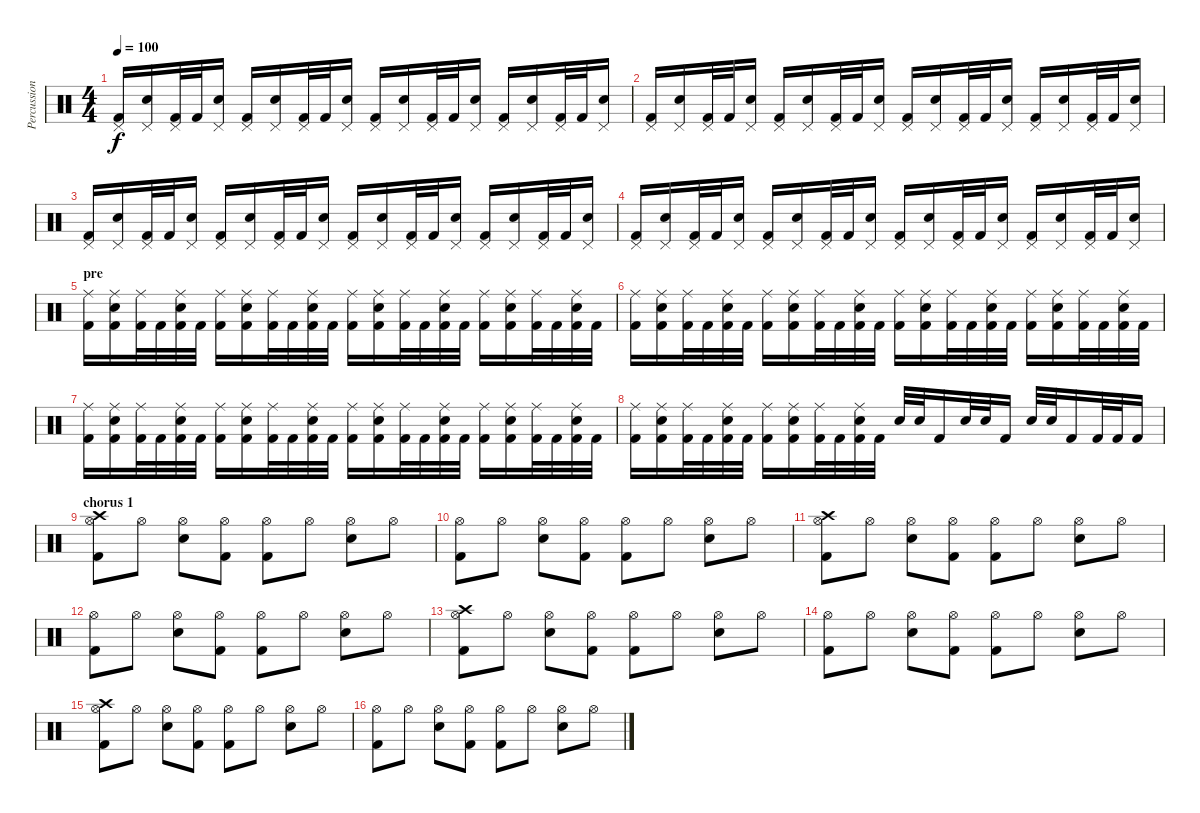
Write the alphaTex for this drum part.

\track ("Percussion" "Percussion") {instrument percussion}
\staff {score}
\articulation defaults
\ts (4 4)
\tempo 100
\clef neutral
\ks c
("Pedal Hi-Hat (hit)" "Kick (hit) 2").16{dy f} ("Pedal Hi-Hat (hit)" "Electric Snare (hit)").16 ("Pedal Hi-Hat (hit)" "Kick (hit) 2").32 "Kick (hit) 2".32 ("Pedal Hi-Hat (hit)" "Electric Snare (hit)").16 ("Pedal Hi-Hat (hit)" "Kick (hit) 2").16 ("Pedal Hi-Hat (hit)" "Electric Snare (hit)").16 ("Pedal Hi-Hat (hit)" "Kick (hit) 2").32 "Kick (hit) 2".32 ("Pedal Hi-Hat (hit)" "Electric Snare (hit)").16 ("Pedal Hi-Hat (hit)" "Kick (hit) 2").16 ("Pedal Hi-Hat (hit)" "Electric Snare (hit)").16 ("Pedal Hi-Hat (hit)" "Kick (hit) 2").32 "Kick (hit) 2".32 ("Pedal Hi-Hat (hit)" "Electric Snare (hit)").16 ("Pedal Hi-Hat (hit)" "Kick (hit) 2").16 ("Pedal Hi-Hat (hit)" "Electric Snare (hit)").16 ("Pedal Hi-Hat (hit)" "Kick (hit) 2").32 "Kick (hit) 2".32 ("Pedal Hi-Hat (hit)" "Electric Snare (hit)").16 |
("Pedal Hi-Hat (hit)" "Kick (hit) 2").16 ("Pedal Hi-Hat (hit)" "Electric Snare (hit)").16 ("Pedal Hi-Hat (hit)" "Kick (hit) 2").32 "Kick (hit) 2".32 ("Pedal Hi-Hat (hit)" "Electric Snare (hit)").16 ("Pedal Hi-Hat (hit)" "Kick (hit) 2").16 ("Pedal Hi-Hat (hit)" "Electric Snare (hit)").16 ("Pedal Hi-Hat (hit)" "Kick (hit) 2").32 "Kick (hit) 2".32 ("Pedal Hi-Hat (hit)" "Electric Snare (hit)").16 ("Pedal Hi-Hat (hit)" "Kick (hit) 2").16 ("Pedal Hi-Hat (hit)" "Electric Snare (hit)").16 ("Pedal Hi-Hat (hit)" "Kick (hit) 2").32 "Kick (hit) 2".32 ("Pedal Hi-Hat (hit)" "Electric Snare (hit)").16 ("Pedal Hi-Hat (hit)" "Kick (hit) 2").16 ("Pedal Hi-Hat (hit)" "Electric Snare (hit)").16 ("Pedal Hi-Hat (hit)" "Kick (hit) 2").32 "Kick (hit) 2".32 ("Pedal Hi-Hat (hit)" "Electric Snare (hit)").16 |
("Pedal Hi-Hat (hit)" "Kick (hit) 2").16 ("Pedal Hi-Hat (hit)" "Electric Snare (hit)").16 ("Pedal Hi-Hat (hit)" "Kick (hit) 2").32 "Kick (hit) 2".32 ("Pedal Hi-Hat (hit)" "Electric Snare (hit)").16 ("Pedal Hi-Hat (hit)" "Kick (hit) 2").16 ("Pedal Hi-Hat (hit)" "Electric Snare (hit)").16 ("Pedal Hi-Hat (hit)" "Kick (hit) 2").32 "Kick (hit) 2".32 ("Pedal Hi-Hat (hit)" "Electric Snare (hit)").16 ("Pedal Hi-Hat (hit)" "Kick (hit) 2").16 ("Pedal Hi-Hat (hit)" "Electric Snare (hit)").16 ("Pedal Hi-Hat (hit)" "Kick (hit) 2").32 "Kick (hit) 2".32 ("Pedal Hi-Hat (hit)" "Electric Snare (hit)").16 ("Pedal Hi-Hat (hit)" "Kick (hit) 2").16 ("Pedal Hi-Hat (hit)" "Electric Snare (hit)").16 ("Pedal Hi-Hat (hit)" "Kick (hit) 2").32 "Kick (hit) 2".32 ("Pedal Hi-Hat (hit)" "Electric Snare (hit)").16 |
("Pedal Hi-Hat (hit)" "Kick (hit) 2").16 ("Pedal Hi-Hat (hit)" "Electric Snare (hit)").16 ("Pedal Hi-Hat (hit)" "Kick (hit) 2").32 "Kick (hit) 2".32 ("Pedal Hi-Hat (hit)" "Electric Snare (hit)").16 ("Pedal Hi-Hat (hit)" "Kick (hit) 2").16 ("Pedal Hi-Hat (hit)" "Electric Snare (hit)").16 ("Pedal Hi-Hat (hit)" "Kick (hit) 2").32 "Kick (hit) 2".32 ("Pedal Hi-Hat (hit)" "Electric Snare (hit)").16 ("Pedal Hi-Hat (hit)" "Kick (hit) 2").16 ("Pedal Hi-Hat (hit)" "Electric Snare (hit)").16 ("Pedal Hi-Hat (hit)" "Kick (hit) 2").32 "Kick (hit) 2".32 ("Pedal Hi-Hat (hit)" "Electric Snare (hit)").16 ("Pedal Hi-Hat (hit)" "Kick (hit) 2").16 ("Pedal Hi-Hat (hit)" "Electric Snare (hit)").16 ("Pedal Hi-Hat (hit)" "Kick (hit) 2").32 "Kick (hit) 2".32 ("Pedal Hi-Hat (hit)" "Electric Snare (hit)").16 |
\section ("" "pre")
("Ride (middle)" "Kick (hit) 2").16 ("Ride (middle)" "Electric Snare (hit)" "Kick (hit) 2").16 ("Ride (middle)" "Kick (hit) 2").32 "Kick (hit) 2".32 ("Ride (middle)" "Electric Snare (hit)" "Kick (hit) 2").32 "Kick (hit) 2".32 ("Ride (middle)" "Kick (hit) 2").16 ("Ride (middle)" "Electric Snare (hit)" "Kick (hit) 2").16 ("Ride (middle)" "Kick (hit) 2").32 "Kick (hit) 2".32 ("Ride (middle)" "Electric Snare (hit)" "Kick (hit) 2").32 "Kick (hit) 2".32 ("Ride (middle)" "Kick (hit) 2").16 ("Ride (middle)" "Electric Snare (hit)" "Kick (hit) 2").16 ("Ride (middle)" "Kick (hit) 2").32 "Kick (hit) 2".32 ("Ride (middle)" "Electric Snare (hit)" "Kick (hit) 2").32 "Kick (hit) 2".32 ("Ride (middle)" "Kick (hit) 2").16 ("Ride (middle)" "Electric Snare (hit)" "Kick (hit) 2").16 ("Ride (middle)" "Kick (hit) 2").32 "Kick (hit) 2".32 ("Ride (middle)" "Electric Snare (hit)" "Kick (hit) 2").32 "Kick (hit) 2".32 |
("Ride (middle)" "Kick (hit) 2").16 ("Ride (middle)" "Electric Snare (hit)" "Kick (hit) 2").16 ("Ride (middle)" "Kick (hit) 2").32 "Kick (hit) 2".32 ("Ride (middle)" "Electric Snare (hit)" "Kick (hit) 2").32 "Kick (hit) 2".32 ("Ride (middle)" "Kick (hit) 2").16 ("Ride (middle)" "Electric Snare (hit)" "Kick (hit) 2").16 ("Ride (middle)" "Kick (hit) 2").32 "Kick (hit) 2".32 ("Ride (middle)" "Electric Snare (hit)" "Kick (hit) 2").32 "Kick (hit) 2".32 ("Ride (middle)" "Kick (hit) 2").16 ("Ride (middle)" "Electric Snare (hit)" "Kick (hit) 2").16 ("Ride (middle)" "Kick (hit) 2").32 "Kick (hit) 2".32 ("Ride (middle)" "Electric Snare (hit)" "Kick (hit) 2").32 "Kick (hit) 2".32 ("Ride (middle)" "Kick (hit) 2").16 ("Ride (middle)" "Electric Snare (hit)" "Kick (hit) 2").16 ("Ride (middle)" "Kick (hit) 2").32 "Kick (hit) 2".32 ("Ride (middle)" "Electric Snare (hit)" "Kick (hit) 2").32 "Kick (hit) 2".32 |
("Ride (middle)" "Kick (hit) 2").16 ("Ride (middle)" "Electric Snare (hit)" "Kick (hit) 2").16 ("Ride (middle)" "Kick (hit) 2").32 "Kick (hit) 2".32 ("Ride (middle)" "Electric Snare (hit)" "Kick (hit) 2").32 "Kick (hit) 2".32 ("Ride (middle)" "Kick (hit) 2").16 ("Ride (middle)" "Electric Snare (hit)" "Kick (hit) 2").16 ("Ride (middle)" "Kick (hit) 2").32 "Kick (hit) 2".32 ("Ride (middle)" "Electric Snare (hit)" "Kick (hit) 2").32 "Kick (hit) 2".32 ("Ride (middle)" "Kick (hit) 2").16 ("Ride (middle)" "Electric Snare (hit)" "Kick (hit) 2").16 ("Ride (middle)" "Kick (hit) 2").32 "Kick (hit) 2".32 ("Ride (middle)" "Electric Snare (hit)" "Kick (hit) 2").32 "Kick (hit) 2".32 ("Ride (middle)" "Kick (hit) 2").16 ("Ride (middle)" "Electric Snare (hit)" "Kick (hit) 2").16 ("Ride (middle)" "Kick (hit) 2").32 "Kick (hit) 2".32 ("Ride (middle)" "Electric Snare (hit)" "Kick (hit) 2").32 "Kick (hit) 2".32 |
("Ride (middle)" "Kick (hit) 2").16 ("Ride (middle)" "Electric Snare (hit)" "Kick (hit) 2").16 ("Ride (middle)" "Kick (hit) 2").32 "Kick (hit) 2".32 ("Ride (middle)" "Electric Snare (hit)" "Kick (hit) 2").32 "Kick (hit) 2".32 ("Ride (middle)" "Kick (hit) 2").16 ("Ride (middle)" "Electric Snare (hit)" "Kick (hit) 2").16 ("Ride (middle)" "Kick (hit) 2").32 "Kick (hit) 2".32 ("Ride (middle)" "Electric Snare (hit)" "Kick (hit) 2").32 "Kick (hit) 2".32 "Electric Snare (hit)".32 "Electric Snare (hit)".32 "Kick (hit) 2".16 "Electric Snare (hit)".32 "Electric Snare (hit)".32 "Kick (hit) 2".16 "Electric Snare (hit)".32 "Electric Snare (hit)".32 "Kick (hit) 2".16 "Kick (hit) 2".32 "Kick (hit) 2".32 "Kick (hit) 2".16 |
\section ("" "chorus 1")
("Crash high (hit)" "Hi-Hat (open)" "Kick (hit) 2").8 "Hi-Hat (open)".8 ("Hi-Hat (open)" "Electric Snare (hit)").8 ("Hi-Hat (open)" "Kick (hit) 2").8 ("Hi-Hat (open)" "Kick (hit) 2").8 "Hi-Hat (open)".8 ("Hi-Hat (open)" "Electric Snare (hit)").8 "Hi-Hat (open)".8 |
("Hi-Hat (open)" "Kick (hit) 2").8 "Hi-Hat (open)".8 ("Hi-Hat (open)" "Electric Snare (hit)").8 ("Hi-Hat (open)" "Kick (hit) 2").8 ("Hi-Hat (open)" "Kick (hit) 2").8 "Hi-Hat (open)".8 ("Hi-Hat (open)" "Electric Snare (hit)").8 "Hi-Hat (open)".8 |
("Crash high (hit)" "Hi-Hat (open)" "Kick (hit) 2").8 "Hi-Hat (open)".8 ("Hi-Hat (open)" "Electric Snare (hit)").8 ("Hi-Hat (open)" "Kick (hit) 2").8 ("Hi-Hat (open)" "Kick (hit) 2").8 "Hi-Hat (open)".8 ("Hi-Hat (open)" "Electric Snare (hit)").8 "Hi-Hat (open)".8 |
("Hi-Hat (open)" "Kick (hit) 2").8 "Hi-Hat (open)".8 ("Hi-Hat (open)" "Electric Snare (hit)").8 ("Hi-Hat (open)" "Kick (hit) 2").8 ("Hi-Hat (open)" "Kick (hit) 2").8 "Hi-Hat (open)".8 ("Hi-Hat (open)" "Electric Snare (hit)").8 "Hi-Hat (open)".8 |
("Crash high (hit)" "Hi-Hat (open)" "Kick (hit) 2").8 "Hi-Hat (open)".8 ("Hi-Hat (open)" "Electric Snare (hit)").8 ("Hi-Hat (open)" "Kick (hit) 2").8 ("Hi-Hat (open)" "Kick (hit) 2").8 "Hi-Hat (open)".8 ("Hi-Hat (open)" "Electric Snare (hit)").8 "Hi-Hat (open)".8 |
("Hi-Hat (open)" "Kick (hit) 2").8 "Hi-Hat (open)".8 ("Hi-Hat (open)" "Electric Snare (hit)").8 ("Hi-Hat (open)" "Kick (hit) 2").8 ("Hi-Hat (open)" "Kick (hit) 2").8 "Hi-Hat (open)".8 ("Hi-Hat (open)" "Electric Snare (hit)").8 "Hi-Hat (open)".8 |
("Crash high (hit)" "Hi-Hat (open)" "Kick (hit) 2").8 "Hi-Hat (open)".8 ("Hi-Hat (open)" "Electric Snare (hit)").8 ("Hi-Hat (open)" "Kick (hit) 2").8 ("Hi-Hat (open)" "Kick (hit) 2").8 "Hi-Hat (open)".8 ("Hi-Hat (open)" "Electric Snare (hit)").8 "Hi-Hat (open)".8 |
("Hi-Hat (open)" "Kick (hit) 2").8 "Hi-Hat (open)".8 ("Hi-Hat (open)" "Electric Snare (hit)").8 ("Hi-Hat (open)" "Kick (hit) 2").8 ("Hi-Hat (open)" "Kick (hit) 2").8 "Hi-Hat (open)".8 ("Hi-Hat (open)" "Electric Snare (hit)").8 "Hi-Hat (open)".8
